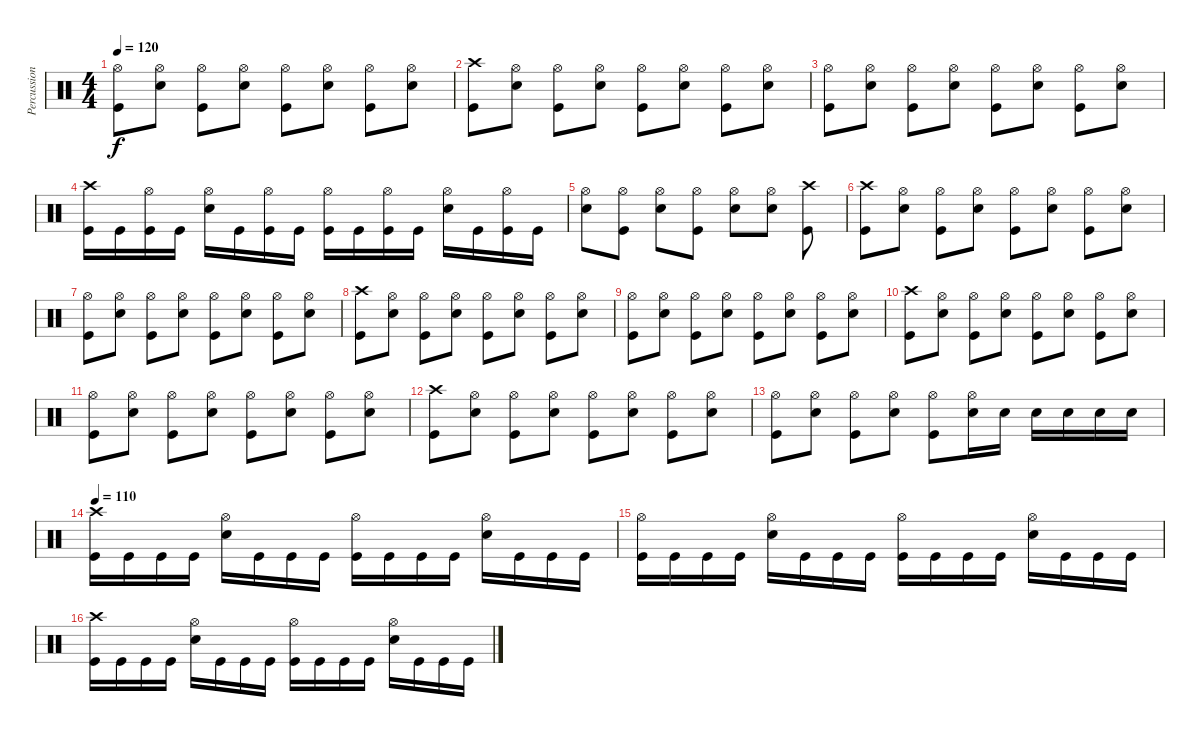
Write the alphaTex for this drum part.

\track ("Percussion" "Percussion") {instrument percussion}
\staff {score}
\articulation defaults
\ts (4 4)
\tempo 120
\clef neutral
\ks c
("Kick (hit)" "Hi-Hat (open)").8{dy f} ("Electric Snare (hit)" "Hi-Hat (open)").8 ("Kick (hit)" "Hi-Hat (open)").8 ("Electric Snare (hit)" "Hi-Hat (open)").8 ("Kick (hit)" "Hi-Hat (open)").8 ("Electric Snare (hit)" "Hi-Hat (open)").8 ("Kick (hit)" "Hi-Hat (open)").8 ("Electric Snare (hit)" "Hi-Hat (open)").8 |
("Kick (hit)" "Crash high (hit)").8 ("Electric Snare (hit)" "Hi-Hat (open)").8 ("Kick (hit)" "Hi-Hat (open)").8 ("Electric Snare (hit)" "Hi-Hat (open)").8 ("Kick (hit)" "Hi-Hat (open)").8 ("Electric Snare (hit)" "Hi-Hat (open)").8 ("Kick (hit)" "Hi-Hat (open)").8 ("Electric Snare (hit)" "Hi-Hat (open)").8 |
("Kick (hit)" "Hi-Hat (open)").8 ("Electric Snare (hit)" "Hi-Hat (open)").8 ("Kick (hit)" "Hi-Hat (open)").8 ("Electric Snare (hit)" "Hi-Hat (open)").8 ("Kick (hit)" "Hi-Hat (open)").8 ("Electric Snare (hit)" "Hi-Hat (open)").8 ("Kick (hit)" "Hi-Hat (open)").8 ("Electric Snare (hit)" "Hi-Hat (open)").8 |
("Kick (hit)" "Crash high (hit)").16 "Kick (hit)".16 ("Kick (hit)" "Hi-Hat (open)").16 "Kick (hit)".16 ("Electric Snare (hit)" "Hi-Hat (open)").16 "Kick (hit)".16 ("Kick (hit)" "Hi-Hat (open)").16 "Kick (hit)".16 ("Kick (hit)" "Hi-Hat (open)").16 "Kick (hit)".16 ("Kick (hit)" "Hi-Hat (open)").16 "Kick (hit)".16 ("Electric Snare (hit)" "Hi-Hat (open)").16 "Kick (hit)".16 ("Kick (hit)" "Hi-Hat (open)").16 "Kick (hit)".16 |
("Electric Snare (hit)" "Hi-Hat (open)").8 ("Kick (hit)" "Hi-Hat (open)").8 ("Electric Snare (hit)" "Hi-Hat (open)").8 ("Kick (hit)" "Hi-Hat (open)").8 ("Electric Snare (hit)" "Hi-Hat (open)").8 ("Electric Snare (hit)" "Hi-Hat (open)").8 ("Kick (hit)" "Crash high (hit)").8 |
("Kick (hit)" "Crash high (hit)").8 ("Electric Snare (hit)" "Hi-Hat (open)").8 ("Kick (hit)" "Hi-Hat (open)").8 ("Electric Snare (hit)" "Hi-Hat (open)").8 ("Kick (hit)" "Hi-Hat (open)").8 ("Electric Snare (hit)" "Hi-Hat (open)").8 ("Kick (hit)" "Hi-Hat (open)").8 ("Electric Snare (hit)" "Hi-Hat (open)").8 |
("Kick (hit)" "Hi-Hat (open)").8 ("Electric Snare (hit)" "Hi-Hat (open)").8 ("Kick (hit)" "Hi-Hat (open)").8 ("Electric Snare (hit)" "Hi-Hat (open)").8 ("Kick (hit)" "Hi-Hat (open)").8 ("Electric Snare (hit)" "Hi-Hat (open)").8 ("Kick (hit)" "Hi-Hat (open)").8 ("Electric Snare (hit)" "Hi-Hat (open)").8 |
("Kick (hit)" "Crash high (hit)").8 ("Electric Snare (hit)" "Hi-Hat (open)").8 ("Kick (hit)" "Hi-Hat (open)").8 ("Electric Snare (hit)" "Hi-Hat (open)").8 ("Kick (hit)" "Hi-Hat (open)").8 ("Electric Snare (hit)" "Hi-Hat (open)").8 ("Kick (hit)" "Hi-Hat (open)").8 ("Electric Snare (hit)" "Hi-Hat (open)").8 |
("Kick (hit)" "Hi-Hat (open)").8 ("Electric Snare (hit)" "Hi-Hat (open)").8 ("Kick (hit)" "Hi-Hat (open)").8 ("Electric Snare (hit)" "Hi-Hat (open)").8 ("Kick (hit)" "Hi-Hat (open)").8 ("Electric Snare (hit)" "Hi-Hat (open)").8 ("Kick (hit)" "Hi-Hat (open)").8 ("Electric Snare (hit)" "Hi-Hat (open)").8 |
("Kick (hit)" "Crash high (hit)").8 ("Electric Snare (hit)" "Hi-Hat (open)").8 ("Kick (hit)" "Hi-Hat (open)").8 ("Electric Snare (hit)" "Hi-Hat (open)").8 ("Kick (hit)" "Hi-Hat (open)").8 ("Electric Snare (hit)" "Hi-Hat (open)").8 ("Kick (hit)" "Hi-Hat (open)").8 ("Electric Snare (hit)" "Hi-Hat (open)").8 |
("Kick (hit)" "Hi-Hat (open)").8 ("Electric Snare (hit)" "Hi-Hat (open)").8 ("Kick (hit)" "Hi-Hat (open)").8 ("Electric Snare (hit)" "Hi-Hat (open)").8 ("Kick (hit)" "Hi-Hat (open)").8 ("Electric Snare (hit)" "Hi-Hat (open)").8 ("Kick (hit)" "Hi-Hat (open)").8 ("Electric Snare (hit)" "Hi-Hat (open)").8 |
("Kick (hit)" "Crash high (hit)").8 ("Electric Snare (hit)" "Hi-Hat (open)").8 ("Kick (hit)" "Hi-Hat (open)").8 ("Electric Snare (hit)" "Hi-Hat (open)").8 ("Kick (hit)" "Hi-Hat (open)").8 ("Electric Snare (hit)" "Hi-Hat (open)").8 ("Kick (hit)" "Hi-Hat (open)").8 ("Electric Snare (hit)" "Hi-Hat (open)").8 |
("Kick (hit)" "Hi-Hat (open)").8 ("Electric Snare (hit)" "Hi-Hat (open)").8 ("Kick (hit)" "Hi-Hat (open)").8 ("Electric Snare (hit)" "Hi-Hat (open)").8 ("Kick (hit)" "Hi-Hat (open)").8 ("Electric Snare (hit)" "Hi-Hat (open)").16 "Electric Snare (hit)".16 "Electric Snare (hit)".16 "Electric Snare (hit)".16 "Electric Snare (hit)".16 "Electric Snare (hit)".16 |
\tempo 110
("Kick (hit)" "Crash high (hit)").16 "Kick (hit)".16 "Kick (hit)".16 "Kick (hit)".16 ("Electric Snare (hit)" "Hi-Hat (open)").16 "Kick (hit)".16 "Kick (hit)".16 "Kick (hit)".16 ("Kick (hit)" "Hi-Hat (open)").16 "Kick (hit)".16 "Kick (hit)".16 "Kick (hit)".16 ("Electric Snare (hit)" "Hi-Hat (open)").16 "Kick (hit)".16 "Kick (hit)".16 "Kick (hit)".16 |
("Kick (hit)" "Hi-Hat (open)").16 "Kick (hit)".16 "Kick (hit)".16 "Kick (hit)".16 ("Electric Snare (hit)" "Hi-Hat (open)").16 "Kick (hit)".16 "Kick (hit)".16 "Kick (hit)".16 ("Kick (hit)" "Hi-Hat (open)").16 "Kick (hit)".16 "Kick (hit)".16 "Kick (hit)".16 ("Electric Snare (hit)" "Hi-Hat (open)").16 "Kick (hit)".16 "Kick (hit)".16 "Kick (hit)".16 |
("Kick (hit)" "Crash high (hit)").16 "Kick (hit)".16 "Kick (hit)".16 "Kick (hit)".16 ("Electric Snare (hit)" "Hi-Hat (open)").16 "Kick (hit)".16 "Kick (hit)".16 "Kick (hit)".16 ("Kick (hit)" "Hi-Hat (open)").16 "Kick (hit)".16 "Kick (hit)".16 "Kick (hit)".16 ("Electric Snare (hit)" "Hi-Hat (open)").16 "Kick (hit)".16 "Kick (hit)".16 "Kick (hit)".16
